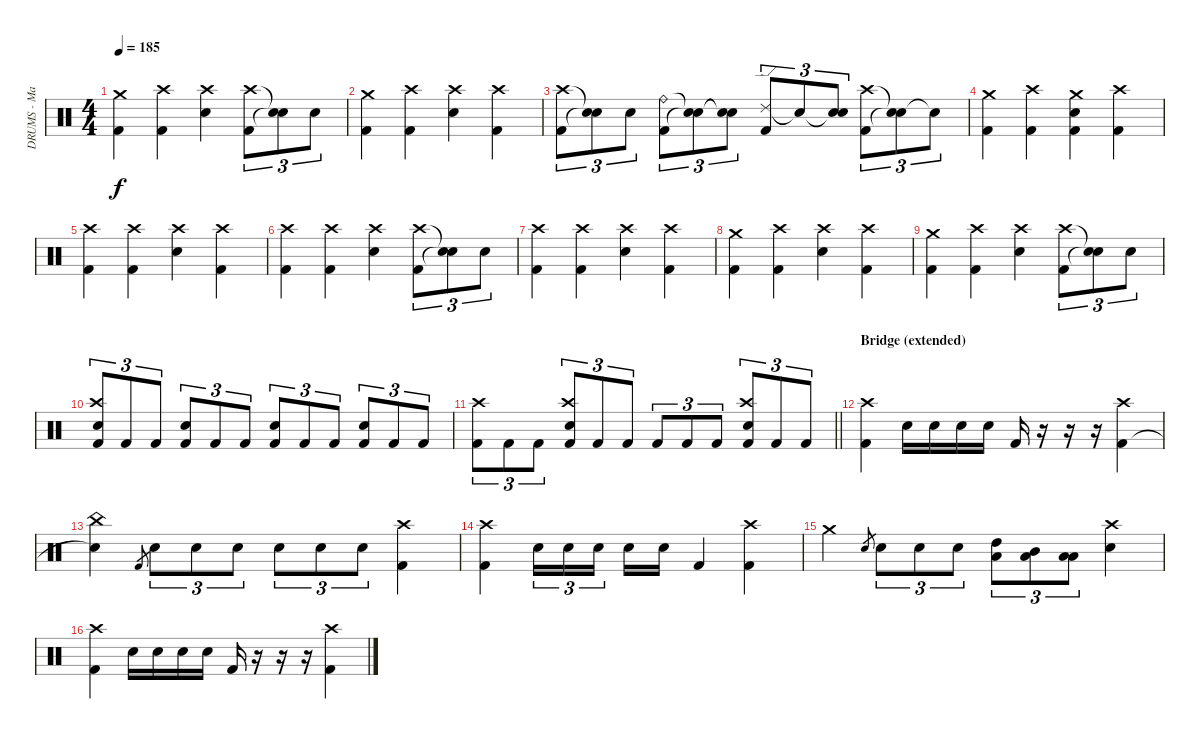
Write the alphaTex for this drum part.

\track ("DRUMS - Mario Duplantier" "DRUMS - Ma") {instrument percussion}
\staff {score}
\articulation defaults
\ts (4 4)
\tempo 185
\clef neutral
\ks c
("Crash medium (hit)" "Kick (hit) 2").4{dy f} ("Crash high (hit)" "Kick (hit) 2").4 ("Crash high (hit)" "Electric Snare (hit)").4 ("Crash high (hit)" "Kick (hit) 2").8{tu (3 2)} ("Snare (hit)"{t} "Snare (hit)"{t}).8{tu (3 2)} "Electric Snare (hit)".8{tu (3 2)} |
("Crash medium (hit)" "Kick (hit) 2").4 ("Crash high (hit)" "Kick (hit) 2").4 ("Crash high (hit)" "Electric Snare (hit)").4 ("Crash high (hit)" "Kick (hit) 2").4 |
("Crash high (hit)" "Kick (hit) 2").8{tu (3 2)} ("Snare (hit)"{t} "Snare (hit)"{t}).8{tu (3 2)} "Electric Snare (hit)".8{tu (3 2)} ("Ride (bell)" "Kick (hit) 2").8{tu (3 2)} ("Snare (hit)"{t} "Snare (hit)"{t}).8{tu (3 2)} ("Snare (hit)"{t} "Snare (hit)"{t}).8{tu (3 2)} ("Ride (edge) 2" "Kick (hit) 2").8{tu (3 2)} "Snare (hit)"{t}.8{tu (3 2)} ("Snare (hit)"{t} "Electric Snare (hit)").8{tu (3 2)} ("Crash high (hit)" "Kick (hit) 2").8{tu (3 2)} ("Snare (hit)"{t} "Snare (hit)"{t}).8{tu (3 2)} "Snare (hit)"{t}.8{tu (3 2)} |
("Crash medium (hit)" "Kick (hit) 2").4 ("Crash high (hit)" "Kick (hit) 2").4 ("Crash medium (hit)" "Kick (hit) 2" "Electric Snare (hit)").4 ("Crash high (hit)" "Kick (hit) 2").4 |
("Crash high (hit)" "Kick (hit) 2").4 ("Crash high (hit)" "Kick (hit) 2").4 ("Crash high (hit)" "Electric Snare (hit)").4 ("Crash high (hit)" "Kick (hit) 2").4 |
("Crash high (hit)" "Kick (hit) 2").4 ("Crash high (hit)" "Kick (hit) 2").4 ("Crash high (hit)" "Electric Snare (hit)").4 ("Crash high (hit)" "Kick (hit) 2").8{tu (3 2)} ("Snare (hit)"{t} "Snare (hit)"{t}).8{tu (3 2)} "Electric Snare (hit)".8{tu (3 2)} |
("Crash high (hit)" "Kick (hit) 2").4 ("Crash high (hit)" "Kick (hit) 2").4 ("Crash high (hit)" "Electric Snare (hit)").4 ("Crash high (hit)" "Kick (hit) 2").4 |
("Crash medium (hit)" "Kick (hit) 2").4 ("Crash high (hit)" "Kick (hit) 2").4 ("Crash high (hit)" "Electric Snare (hit)").4 ("Crash high (hit)" "Kick (hit) 2").4 |
("Crash medium (hit)" "Kick (hit) 2").4 ("Crash high (hit)" "Kick (hit) 2").4 ("Crash high (hit)" "Electric Snare (hit)").4 ("Crash high (hit)" "Kick (hit) 2").8{tu (3 2)} ("Snare (hit)"{t} "Snare (hit)"{t}).8{tu (3 2)} "Electric Snare (hit)".8{tu (3 2)} |
("Crash high (hit)" "Electric Snare (hit)" "Kick (hit) 2").8{tu (3 2)} "Kick (hit) 2".8{tu (3 2)} "Kick (hit) 2".8{tu (3 2)} ("Electric Snare (hit)" "Kick (hit) 2").8{tu (3 2)} "Kick (hit) 2".8{tu (3 2)} "Kick (hit) 2".8{tu (3 2)} ("Electric Snare (hit)" "Kick (hit) 2").8{tu (3 2)} "Kick (hit) 2".8{tu (3 2)} "Kick (hit) 2".8{tu (3 2)} ("Electric Snare (hit)" "Kick (hit) 2").8{tu (3 2)} "Kick (hit) 2".8{tu (3 2)} "Kick (hit) 2".8{tu (3 2)} |
\barLineRight lightlight
("Crash high (hit)" "Kick (hit) 2").8{tu (3 2)} "Kick (hit) 2".8{tu (3 2)} "Kick (hit) 2".8{tu (3 2)} ("Crash high (hit)" "Electric Snare (hit)" "Kick (hit) 2").8{tu (3 2)} "Kick (hit) 2".8{tu (3 2)} "Kick (hit) 2".8{tu (3 2)} "Kick (hit) 2".8{tu (3 2)} "Kick (hit) 2".8{tu (3 2)} "Kick (hit) 2".8{tu (3 2)} ("Crash high (hit)" "Electric Snare (hit)" "Kick (hit) 2").8{tu (3 2)} "Kick (hit) 2".8{tu (3 2)} "Kick (hit) 2".8{tu (3 2)} |
\section ("" "Bridge (extended)")
("Crash high (hit)" "Kick (hit) 2").4 "Electric Snare (hit)".16 "Electric Snare (hit)".16 "Electric Snare (hit)".16 "Electric Snare (hit)".16 "Kick (hit) 2".16 r.16 r.16 r.16 ("Crash high (hit)" "Kick (hit) 2").4 |
("China (hit)" "Snare (hit)"{t}).4 "Kick (hit) 2".8{gr} "Electric Snare (hit)".8{tu (3 2)} "Electric Snare (hit)".8{tu (3 2)} "Electric Snare (hit)".8{tu (3 2)} "Electric Snare (hit)".8{tu (3 2)} "Electric Snare (hit)".8{tu (3 2)} "Electric Snare (hit)".8{tu (3 2)} ("Crash high (hit)" "Kick (hit) 2").4 |
("Crash high (hit)" "Kick (hit) 2").4 "Electric Snare (hit)".16{tu (3 2)} "Electric Snare (hit)".16{tu (3 2)} "Electric Snare (hit)".16{tu (3 2) beam splitsecondary} "Electric Snare (hit)".16 "Electric Snare (hit)".16 "Kick (hit) 2".4 ("Crash high (hit)" "Kick (hit) 2").4 |
"Crash medium (hit)".4 "Electric Snare (hit)".8{gr} "Electric Snare (hit)".8{tu (3 2)} "Electric Snare (hit)".8{tu (3 2)} "Electric Snare (hit)".8{tu (3 2)} ("High Tom (hit)" "Low Floor Tom (hit)").8{tu (3 2)} ("Mid Tom (hit)" "Low Floor Tom (hit)").8{tu (3 2)} ("Low Tom (hit)" "Low Floor Tom (hit)").8{tu (3 2)} ("Crash high (hit)" "Electric Snare (hit)").4 |
("Crash high (hit)" "Kick (hit) 2").4 "Electric Snare (hit)".16 "Electric Snare (hit)".16 "Electric Snare (hit)".16 "Electric Snare (hit)".16 "Kick (hit) 2".16 r.16 r.16 r.16 ("Crash high (hit)" "Kick (hit) 2").4
